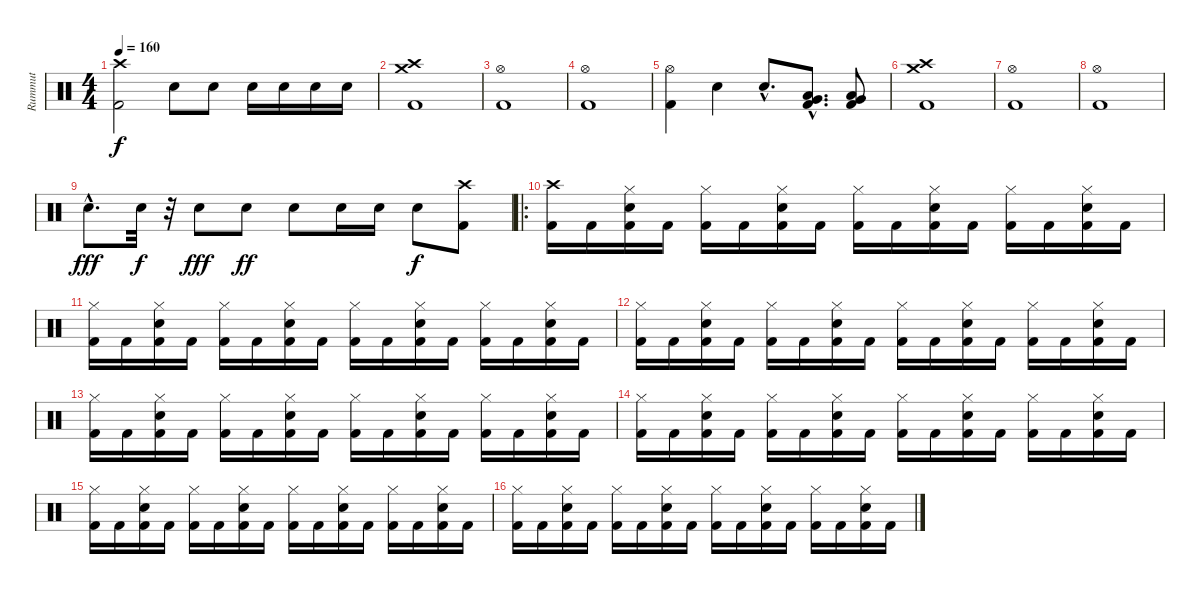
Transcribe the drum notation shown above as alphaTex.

\track ("Rummut" "Rummut") {instrument percussion}
\staff {score}
\articulation defaults
\ts (4 4)
\tempo 160
\clef neutral
\ks c
("Crash high (hit)" "Kick (hit) 2").2{dy f} "Snare (hit) 2".8 "Snare (hit) 2".8 "Snare (hit) 2".16 "Snare (hit) 2".16 "Snare (hit) 2".16 "Snare (hit) 2".16 |
("Crash medium (hit)" "Crash high (hit)" "Kick (hit) 2").1 |
("Hi-Hat (open)" "Kick (hit) 2").1 |
("Hi-Hat (open)" "Kick (hit) 2").1 |
("Hi-Hat (open)" "Kick (hit) 2").4 "Electric Snare (hit)".4 "Electric Snare (hit)"{hac}.8{d} ("Low Tom (hit)"{hac} "Very Low Tom (hit)"{hac} "Kick (hit) 2"{hac}).8{d} ("Very Low Tom (hit)" "Low Floor Tom (hit)" "Kick (hit) 2").8 |
("Crash medium (hit)" "Crash high (hit)" "Kick (hit) 2").1 |
("Hi-Hat (open)" "Kick (hit) 2").1 |
("Hi-Hat (open)" "Kick (hit) 2").1 |
"Snare (hit) 2"{hac}.8{d dy fff} "Snare (hit) 2".32{dy f} r.32 "Snare (hit) 2".8{dy fff} "Snare (hit) 2".8{dy ff} "Snare (hit) 2".8 "Snare (hit) 2".16 "Snare (hit) 2".16 "Snare (hit) 2".8{dy f} ("Kick (hit) 2" "Crash high (hit)").8 |
\ro
("Crash high (hit)" "Kick (hit) 2").16 "Kick (hit) 2".16 ("Hi-Hat (closed)" "Snare (hit) 2" "Kick (hit) 2").16 "Kick (hit) 2".16 ("Hi-Hat (closed)" "Kick (hit) 2").16 "Kick (hit) 2".16 ("Hi-Hat (closed)" "Snare (hit) 2" "Kick (hit) 2").16 "Kick (hit) 2".16 ("Hi-Hat (closed)" "Kick (hit) 2").16 "Kick (hit) 2".16 ("Hi-Hat (closed)" "Snare (hit) 2" "Kick (hit) 2").16 "Kick (hit) 2".16 ("Hi-Hat (closed)" "Kick (hit) 2").16 "Kick (hit) 2".16 ("Hi-Hat (closed)" "Snare (hit) 2" "Kick (hit) 2").16 "Kick (hit) 2".16 |
("Hi-Hat (closed)" "Kick (hit) 2").16 "Kick (hit) 2".16 ("Hi-Hat (closed)" "Snare (hit) 2" "Kick (hit) 2").16 "Kick (hit) 2".16 ("Hi-Hat (closed)" "Kick (hit) 2").16 "Kick (hit) 2".16 ("Hi-Hat (closed)" "Snare (hit) 2" "Kick (hit) 2").16 "Kick (hit) 2".16 ("Hi-Hat (closed)" "Kick (hit) 2").16 "Kick (hit) 2".16 ("Hi-Hat (closed)" "Snare (hit) 2" "Kick (hit) 2").16 "Kick (hit) 2".16 ("Hi-Hat (closed)" "Kick (hit) 2").16 "Kick (hit) 2".16 ("Hi-Hat (closed)" "Snare (hit) 2" "Kick (hit) 2").16 "Kick (hit) 2".16 |
("Hi-Hat (closed)" "Kick (hit) 2").16 "Kick (hit) 2".16 ("Hi-Hat (closed)" "Snare (hit) 2" "Kick (hit) 2").16 "Kick (hit) 2".16 ("Hi-Hat (closed)" "Kick (hit) 2").16 "Kick (hit) 2".16 ("Hi-Hat (closed)" "Snare (hit) 2" "Kick (hit) 2").16 "Kick (hit) 2".16 ("Hi-Hat (closed)" "Kick (hit) 2").16 "Kick (hit) 2".16 ("Hi-Hat (closed)" "Snare (hit) 2" "Kick (hit) 2").16 "Kick (hit) 2".16 ("Hi-Hat (closed)" "Kick (hit) 2").16 "Kick (hit) 2".16 ("Hi-Hat (closed)" "Snare (hit) 2" "Kick (hit) 2").16 "Kick (hit) 2".16 |
("Hi-Hat (closed)" "Kick (hit) 2").16 "Kick (hit) 2".16 ("Hi-Hat (closed)" "Snare (hit) 2" "Kick (hit) 2").16 "Kick (hit) 2".16 ("Hi-Hat (closed)" "Kick (hit) 2").16 "Kick (hit) 2".16 ("Hi-Hat (closed)" "Snare (hit) 2" "Kick (hit) 2").16 "Kick (hit) 2".16 ("Hi-Hat (closed)" "Kick (hit) 2").16 "Kick (hit) 2".16 ("Hi-Hat (closed)" "Snare (hit) 2" "Kick (hit) 2").16 "Kick (hit) 2".16 ("Hi-Hat (closed)" "Kick (hit) 2").16 "Kick (hit) 2".16 ("Hi-Hat (closed)" "Snare (hit) 2" "Kick (hit) 2").16 "Kick (hit) 2".16 |
("Hi-Hat (closed)" "Kick (hit) 2").16 "Kick (hit) 2".16 ("Hi-Hat (closed)" "Snare (hit) 2" "Kick (hit) 2").16 "Kick (hit) 2".16 ("Hi-Hat (closed)" "Kick (hit) 2").16 "Kick (hit) 2".16 ("Hi-Hat (closed)" "Snare (hit) 2" "Kick (hit) 2").16 "Kick (hit) 2".16 ("Hi-Hat (closed)" "Kick (hit) 2").16 "Kick (hit) 2".16 ("Hi-Hat (closed)" "Snare (hit) 2" "Kick (hit) 2").16 "Kick (hit) 2".16 ("Hi-Hat (closed)" "Kick (hit) 2").16 "Kick (hit) 2".16 ("Hi-Hat (closed)" "Snare (hit) 2" "Kick (hit) 2").16 "Kick (hit) 2".16 |
("Hi-Hat (closed)" "Kick (hit) 2").16 "Kick (hit) 2".16 ("Hi-Hat (closed)" "Snare (hit) 2" "Kick (hit) 2").16 "Kick (hit) 2".16 ("Hi-Hat (closed)" "Kick (hit) 2").16 "Kick (hit) 2".16 ("Hi-Hat (closed)" "Snare (hit) 2" "Kick (hit) 2").16 "Kick (hit) 2".16 ("Hi-Hat (closed)" "Kick (hit) 2").16 "Kick (hit) 2".16 ("Hi-Hat (closed)" "Snare (hit) 2" "Kick (hit) 2").16 "Kick (hit) 2".16 ("Hi-Hat (closed)" "Kick (hit) 2").16 "Kick (hit) 2".16 ("Hi-Hat (closed)" "Snare (hit) 2" "Kick (hit) 2").16 "Kick (hit) 2".16 |
("Hi-Hat (closed)" "Kick (hit) 2").16 "Kick (hit) 2".16 ("Hi-Hat (closed)" "Snare (hit) 2" "Kick (hit) 2").16 "Kick (hit) 2".16 ("Hi-Hat (closed)" "Kick (hit) 2").16 "Kick (hit) 2".16 ("Hi-Hat (closed)" "Snare (hit) 2" "Kick (hit) 2").16 "Kick (hit) 2".16 ("Hi-Hat (closed)" "Kick (hit) 2").16 "Kick (hit) 2".16 ("Hi-Hat (closed)" "Snare (hit) 2" "Kick (hit) 2").16 "Kick (hit) 2".16 ("Hi-Hat (closed)" "Kick (hit) 2").16 "Kick (hit) 2".16 ("Hi-Hat (closed)" "Snare (hit) 2" "Kick (hit) 2").16 "Kick (hit) 2".16
